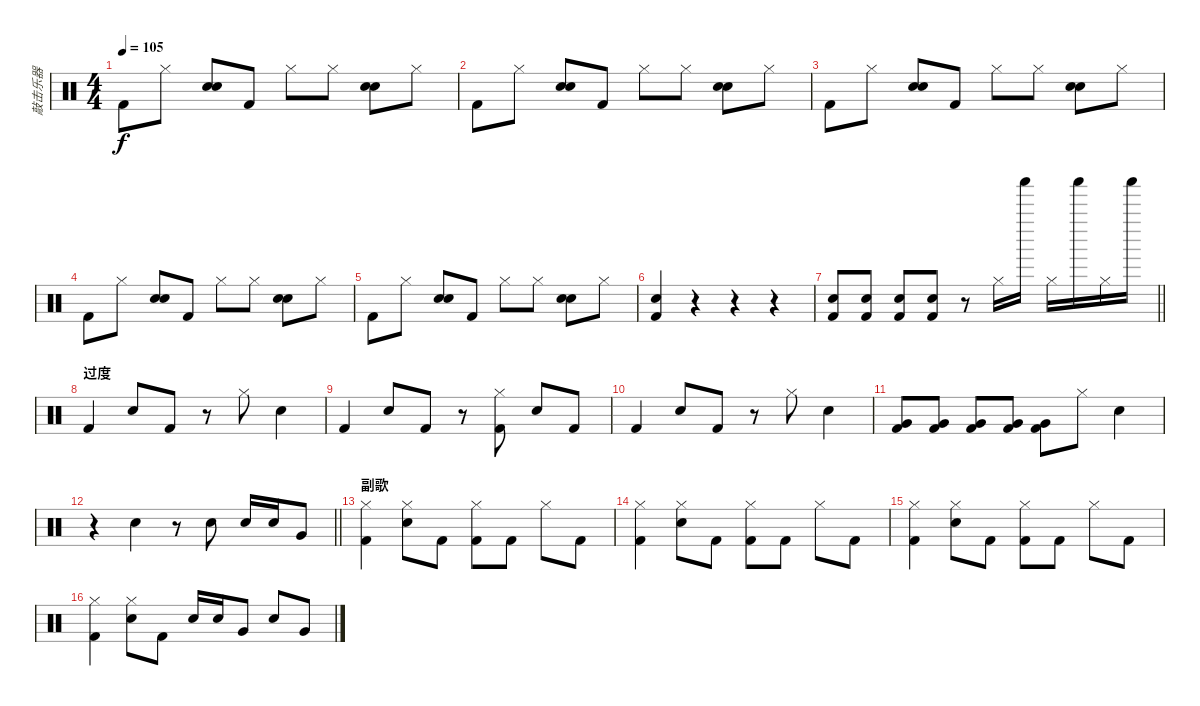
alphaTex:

\track ("敲击乐器" "敲击乐器") {instrument percussion}
\staff {score}
\articulation defaults
\ts (4 4)
\tempo 105
\clef neutral
\ks c "Kick (hit) 2".8{dy f} "Hi-Hat (closed)".8
("Electric Snare (hit)" "Hand Clap (hit)").8 "Kick (hit) 2".8 "Hi-Hat (closed)".8 "Hi-Hat (closed)".8 ("Electric Snare (hit)" "Hand Clap (hit)").8 "Hi-Hat (closed)".8 |
"Kick (hit) 2".8 "Hi-Hat (closed)".8 ("Electric Snare (hit)" "Hand Clap (hit)").8 "Kick (hit) 2".8 "Hi-Hat (closed)".8 "Hi-Hat (closed)".8 ("Electric Snare (hit)" "Hand Clap (hit)").8 "Hi-Hat (closed)".8 |
"Kick (hit) 2".8 "Hi-Hat (closed)".8 ("Electric Snare (hit)" "Hand Clap (hit)").8 "Kick (hit) 2".8 "Hi-Hat (closed)".8 "Hi-Hat (closed)".8 ("Electric Snare (hit)" "Hand Clap (hit)").8 "Hi-Hat (closed)".8 |
"Kick (hit) 2".8 "Hi-Hat (closed)".8 ("Electric Snare (hit)" "Hand Clap (hit)").8 "Kick (hit) 2".8 "Hi-Hat (closed)".8 "Hi-Hat (closed)".8 ("Electric Snare (hit)" "Hand Clap (hit)").8 "Hi-Hat (closed)".8 |
"Kick (hit) 2".8 "Hi-Hat (closed)".8 ("Electric Snare (hit)" "Hand Clap (hit)").8 "Kick (hit) 2".8 "Hi-Hat (closed)".8 "Hi-Hat (closed)".8 ("Electric Snare (hit)" "Hand Clap (hit)").8 "Hi-Hat (closed)".8 |
("Kick (hit) 2" "Electric Snare (hit)").4 r.4 r.4 r.4 |
\barLineRight lightlight
("Electric Snare (hit)" "Kick (hit) 2").8 ("Kick (hit) 2" "Electric Snare (hit)").8 ("Electric Snare (hit)" "Kick (hit) 2").8 ("Kick (hit) 2" "Electric Snare (hit)").8 r.8 "Hi-Hat (closed)".16 "Shaker (hit)".16 "Hi-Hat (closed)".16 "Shaker (hit)".16 "Hi-Hat (closed)".16 "Shaker (hit)".16 |
\section ("" "过度")
"Kick (hit) 2".4 "Hand Clap (hit)".8 "Kick (hit) 2".8 r.8 "Hi-Hat (closed)".8 "Hand Clap (hit)".4 |
"Kick (hit) 2".4 "Hand Clap (hit)".8 "Kick (hit) 2".8 r.8 ("Hi-Hat (closed)" "Kick (hit) 2").8 "Hand Clap (hit)".8 "Kick (hit) 2".8 |
"Kick (hit) 2".4 "Hand Clap (hit)".8 "Kick (hit) 2".8 r.8 "Hi-Hat (closed)".8 "Hand Clap (hit)".4 |
("Kick (hit) 2" "Very Low Tom (hit)").8 ("Kick (hit) 2" "Very Low Tom (hit)").8 ("Kick (hit) 2" "Very Low Tom (hit)").8 ("Kick (hit) 2" "Very Low Tom (hit)").8 ("Kick (hit) 2" "Very Low Tom (hit)").8 "Hi-Hat (closed)".8 "Hand Clap (hit)".4 |
\barLineRight lightlight
r.4 "Hand Clap (hit)".4 r.8 "Electric Snare (hit)".8 "Electric Snare (hit)".16 "Electric Snare (hit)".16 "Very Low Tom (hit)".8 |
\section ("" "副歌")
("Kick (hit) 2" "Hi-Hat (closed)").4 ("Electric Snare (hit)" "Hi-Hat (closed)").8 "Kick (hit) 2".8 ("Kick (hit) 2" "Hi-Hat (closed)").8 "Kick (hit) 2".8 "Hi-Hat (closed)".8 "Kick (hit) 2".8 |
("Kick (hit) 2" "Hi-Hat (closed)").4 ("Electric Snare (hit)" "Hi-Hat (closed)").8 "Kick (hit) 2".8 ("Kick (hit) 2" "Hi-Hat (closed)").8 "Kick (hit) 2".8 "Hi-Hat (closed)".8 "Kick (hit) 2".8 |
("Kick (hit) 2" "Hi-Hat (closed)").4 ("Electric Snare (hit)" "Hi-Hat (closed)").8 "Kick (hit) 2".8 ("Kick (hit) 2" "Hi-Hat (closed)").8 "Kick (hit) 2".8 "Hi-Hat (closed)".8 "Kick (hit) 2".8 |
("Kick (hit) 2" "Hi-Hat (closed)").4 ("Electric Snare (hit)" "Hi-Hat (closed)").8 "Kick (hit) 2".8 "Electric Snare (hit)".16 "Electric Snare (hit)".16 "Very Low Tom (hit)".8 "Electric Snare (hit)".8 "Very Low Tom (hit)".8
